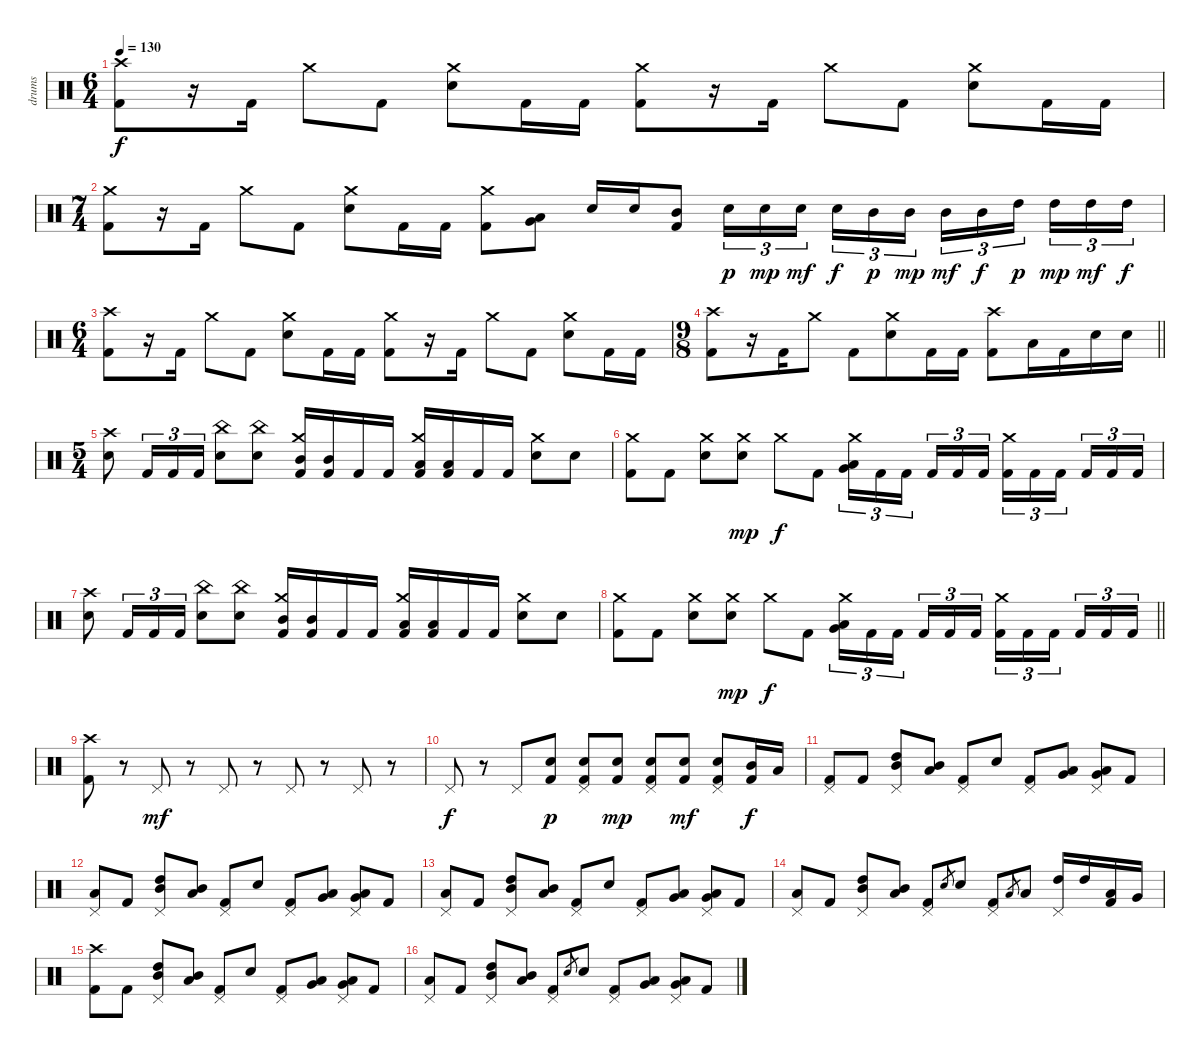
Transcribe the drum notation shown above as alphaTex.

\track ("drums" "drums") {instrument percussion}
\staff {score}
\articulation defaults
\ts (6 4)
\tempo 130
\clef neutral
\ks c
("Crash high (hit)" "Kick (hit) 2").8{dy f} r.16 "Kick (hit) 2".16 "Crash medium (hit)".8 "Kick (hit) 2".8 ("Crash medium (hit)" "Electric Snare (hit)").8 "Kick (hit) 2".16 "Kick (hit) 2".16 ("Crash medium (hit)" "Kick (hit) 2").8 r.16 "Kick (hit) 2".16 "Crash medium (hit)".8 "Kick (hit) 2".8 ("Crash medium (hit)" "Electric Snare (hit)").8 "Kick (hit) 2".16 "Kick (hit) 2".16 |
\ts (7 4)
("Crash medium (hit)" "Kick (hit) 2").8 r.16 "Kick (hit) 2".16 "Crash medium (hit)".8 "Kick (hit) 2".8 ("Crash medium (hit)" "Electric Snare (hit)").8 "Kick (hit) 2".16 "Kick (hit) 2".16 ("Crash medium (hit)" "Kick (hit) 2").8 ("Very Low Tom (hit)" "Low Floor Tom (hit)").8 "Electric Snare (hit)".16 "Electric Snare (hit)".16 ("Mid Tom (hit)" "Kick (hit) 2").8 "Electric Snare (hit)".16{tu (3 2) dy p} "Electric Snare (hit)".16{tu (3 2) dy mp} "Electric Snare (hit)".16{tu (3 2) dy mf} "Electric Snare (hit)".16{tu (3 2) dy f} "Mid Tom (hit)".16{tu (3 2) dy p} "Mid Tom (hit)".16{tu (3 2) dy mp} "Mid Tom (hit)".16{tu (3 2) dy mf} "Mid Tom (hit)".16{tu (3 2) dy f} "High Tom (hit)".16{tu (3 2) dy p} "High Tom (hit)".16{tu (3 2) dy mp} "High Tom (hit)".16{tu (3 2) dy mf} "High Tom (hit)".16{tu (3 2) dy f} |
\ts (6 4)
("Crash high (hit)" "Kick (hit) 2").8 r.16 "Kick (hit) 2".16 "Crash medium (hit)".8 "Kick (hit) 2".8 ("Crash medium (hit)" "Electric Snare (hit)").8 "Kick (hit) 2".16 "Kick (hit) 2".16 ("Crash medium (hit)" "Kick (hit) 2").8 r.16 "Kick (hit) 2".16 "Crash medium (hit)".8 "Kick (hit) 2".8 ("Crash medium (hit)" "Electric Snare (hit)").8 "Kick (hit) 2".16 "Kick (hit) 2".16 |
\ts (9 8)
\barLineRight lightlight
("Crash high (hit)" "Kick (hit) 2").8 r.16 "Kick (hit) 2".16 "Crash medium (hit)".8 "Kick (hit) 2".8 ("Crash medium (hit)" "Electric Snare (hit)").8 "Kick (hit) 2".16 "Kick (hit) 2".16 ("Crash high (hit)" "Kick (hit) 2").8 "Low Floor Tom (hit)".16 "Kick (hit) 2".16 "Electric Snare (hit)".16 "Electric Snare (hit)".16 |
\ts (5 4)
\section ("" "")
("Crash high (hit)" "Electric Snare (hit)").8 "Kick (hit) 2".16{tu (3 2)} "Kick (hit) 2".16{tu (3 2)} "Kick (hit) 2".16{tu (3 2)} ("China (hit)" "Electric Snare (hit)").8 ("China (hit)" "Electric Snare (hit)").8 ("Crash medium (hit)" "Mid Tom (hit)" "Kick (hit) 2").16 ("Mid Tom (hit)" "Kick (hit) 2").16 "Kick (hit) 2".16 "Kick (hit) 2".16 ("Crash medium (hit)" "Low Tom (hit)" "Kick (hit) 2").16 ("Low Tom (hit)" "Kick (hit) 2").16 "Kick (hit) 2".16 "Kick (hit) 2".16 ("Crash medium (hit)" "Electric Snare (hit)").8 "Electric Snare (hit)".8 |
("Crash medium (hit)" "Kick (hit) 2").8 "Kick (hit) 2".8 ("Crash medium (hit)" "Electric Snare (hit)").8 ("Crash medium (hit)" "Electric Snare (hit)").8{dy mp} "Crash medium (hit)".8{dy f} "Kick (hit) 2".8 ("Crash medium (hit)" "Low Floor Tom (hit)" "Very Low Tom (hit)").16{tu (3 2)} "Kick (hit) 2".16{tu (3 2)} "Kick (hit) 2".16{tu (3 2)} "Kick (hit) 2".16{tu (3 2)} "Kick (hit) 2".16{tu (3 2)} "Kick (hit) 2".16{tu (3 2)} ("Crash medium (hit)" "Kick (hit) 2").16{tu (3 2)} "Kick (hit) 2".16{tu (3 2)} "Kick (hit) 2".16{tu (3 2)} "Kick (hit) 2".16{tu (3 2)} "Kick (hit) 2".16{tu (3 2)} "Kick (hit) 2".16{tu (3 2)} |
("Crash high (hit)" "Electric Snare (hit)").8 "Kick (hit) 2".16{tu (3 2)} "Kick (hit) 2".16{tu (3 2)} "Kick (hit) 2".16{tu (3 2)} ("China (hit)" "Electric Snare (hit)").8 ("China (hit)" "Electric Snare (hit)").8 ("Crash medium (hit)" "Mid Tom (hit)" "Kick (hit) 2").16 ("Mid Tom (hit)" "Kick (hit) 2").16 "Kick (hit) 2".16 "Kick (hit) 2".16 ("Crash medium (hit)" "Low Tom (hit)" "Kick (hit) 2").16 ("Low Tom (hit)" "Kick (hit) 2").16 "Kick (hit) 2".16 "Kick (hit) 2".16 ("Crash medium (hit)" "Electric Snare (hit)").8 "Electric Snare (hit)".8 |
\barLineRight lightlight
("Crash medium (hit)" "Kick (hit) 2").8 "Kick (hit) 2".8 ("Crash medium (hit)" "Electric Snare (hit)").8 ("Crash medium (hit)" "Electric Snare (hit)").8{dy mp} "Crash medium (hit)".8{dy f} "Kick (hit) 2".8 ("Crash medium (hit)" "Low Floor Tom (hit)" "Very Low Tom (hit)").16{tu (3 2)} "Kick (hit) 2".16{tu (3 2)} "Kick (hit) 2".16{tu (3 2)} "Kick (hit) 2".16{tu (3 2)} "Kick (hit) 2".16{tu (3 2)} "Kick (hit) 2".16{tu (3 2)} ("Crash medium (hit)" "Kick (hit) 2").16{tu (3 2)} "Kick (hit) 2".16{tu (3 2)} "Kick (hit) 2".16{tu (3 2)} "Kick (hit) 2".16{tu (3 2)} "Kick (hit) 2".16{tu (3 2)} "Kick (hit) 2".16{tu (3 2)} |
\section ("" "")
("Crash high (hit)" "Kick (hit) 2").8 r.8 "Pedal Hi-Hat (hit)".8{dy mf} r.8 "Pedal Hi-Hat (hit)".8 r.8 "Pedal Hi-Hat (hit)".8 r.8 "Pedal Hi-Hat (hit)".8 r.8 |
"Pedal Hi-Hat (hit)".8{dy f} r.8 "Pedal Hi-Hat (hit)".8 ("Electric Snare (hit)" "Kick (hit) 2").8{dy p} ("Pedal Hi-Hat (hit)" "Electric Snare (hit)" "Kick (hit) 2").8 ("Electric Snare (hit)" "Kick (hit) 2").8{dy mp} ("Pedal Hi-Hat (hit)" "Electric Snare (hit)" "Kick (hit) 2").8 ("Electric Snare (hit)" "Kick (hit) 2").8{dy mf} ("Pedal Hi-Hat (hit)" "Electric Snare (hit)" "Kick (hit) 2").8 ("Mid Tom (hit)" "Kick (hit) 2").16{dy f} "Low Tom (hit)".16 |
("Pedal Hi-Hat (hit)" "Kick (hit) 2").8 "Kick (hit) 2".8 ("Pedal Hi-Hat (hit)" "High Tom (hit)" "Mid Tom (hit)").8 ("Mid Tom (hit)" "Low Tom (hit)").8 ("Pedal Hi-Hat (hit)" "Kick (hit) 2").8 "Electric Snare (hit)".8 ("Pedal Hi-Hat (hit)" "Kick (hit) 2").8 ("Very Low Tom (hit)" "Low Floor Tom (hit)").8 ("Pedal Hi-Hat (hit)" "Very Low Tom (hit)" "Low Floor Tom (hit)").8 "Kick (hit) 2".8 |
("Pedal Hi-Hat (hit)" "Low Floor Tom (hit)").8 "Kick (hit) 2".8 ("Pedal Hi-Hat (hit)" "High Tom (hit)" "Mid Tom (hit)").8 ("Mid Tom (hit)" "Low Tom (hit)").8 ("Pedal Hi-Hat (hit)" "Kick (hit) 2").8 "Electric Snare (hit)".8 ("Pedal Hi-Hat (hit)" "Kick (hit) 2").8 ("Very Low Tom (hit)" "Low Floor Tom (hit)").8 ("Pedal Hi-Hat (hit)" "Very Low Tom (hit)" "Low Floor Tom (hit)").8 "Kick (hit) 2".8 |
("Pedal Hi-Hat (hit)" "Low Floor Tom (hit)").8 "Kick (hit) 2".8 ("Pedal Hi-Hat (hit)" "High Tom (hit)" "Mid Tom (hit)").8 ("Mid Tom (hit)" "Low Tom (hit)").8 ("Pedal Hi-Hat (hit)" "Kick (hit) 2").8 "Electric Snare (hit)".8 ("Pedal Hi-Hat (hit)" "Kick (hit) 2").8 ("Very Low Tom (hit)" "Low Floor Tom (hit)").8 ("Pedal Hi-Hat (hit)" "Very Low Tom (hit)" "Low Floor Tom (hit)").8 "Kick (hit) 2".8 |
("Pedal Hi-Hat (hit)" "Low Floor Tom (hit)").8 "Kick (hit) 2".8 ("Pedal Hi-Hat (hit)" "High Tom (hit)" "Mid Tom (hit)").8 ("Mid Tom (hit)" "Low Tom (hit)").8 ("Pedal Hi-Hat (hit)" "Kick (hit) 2").8 "Electric Snare (hit)".8{gr} "Electric Snare (hit)".8 ("Pedal Hi-Hat (hit)" "Kick (hit) 2").8 "Low Tom (hit)".8{gr} "Low Tom (hit)".8 ("Pedal Hi-Hat (hit)" "High Tom (hit)").16 "High Tom (hit)".16 ("Low Tom (hit)" "Kick (hit) 2").16 "Very Low Tom (hit)".16 |
\section ("" "")
("Crash high (hit)" "Kick (hit) 2").8 "Kick (hit) 2".8 ("Pedal Hi-Hat (hit)" "High Tom (hit)" "Mid Tom (hit)").8 ("Mid Tom (hit)" "Low Tom (hit)").8 ("Pedal Hi-Hat (hit)" "Kick (hit) 2").8 "Electric Snare (hit)".8 ("Pedal Hi-Hat (hit)" "Kick (hit) 2").8 ("Very Low Tom (hit)" "Low Floor Tom (hit)").8 ("Pedal Hi-Hat (hit)" "Very Low Tom (hit)" "Low Floor Tom (hit)").8 "Kick (hit) 2".8 |
("Pedal Hi-Hat (hit)" "Low Floor Tom (hit)").8 "Kick (hit) 2".8 ("Pedal Hi-Hat (hit)" "High Tom (hit)" "Mid Tom (hit)").8 ("Mid Tom (hit)" "Low Tom (hit)").8 ("Pedal Hi-Hat (hit)" "Kick (hit) 2").8 "Electric Snare (hit)".8{gr} "Electric Snare (hit)".8 ("Pedal Hi-Hat (hit)" "Kick (hit) 2").8 ("Very Low Tom (hit)" "Low Floor Tom (hit)").8 ("Pedal Hi-Hat (hit)" "Very Low Tom (hit)" "Low Floor Tom (hit)").8 "Kick (hit) 2".8
